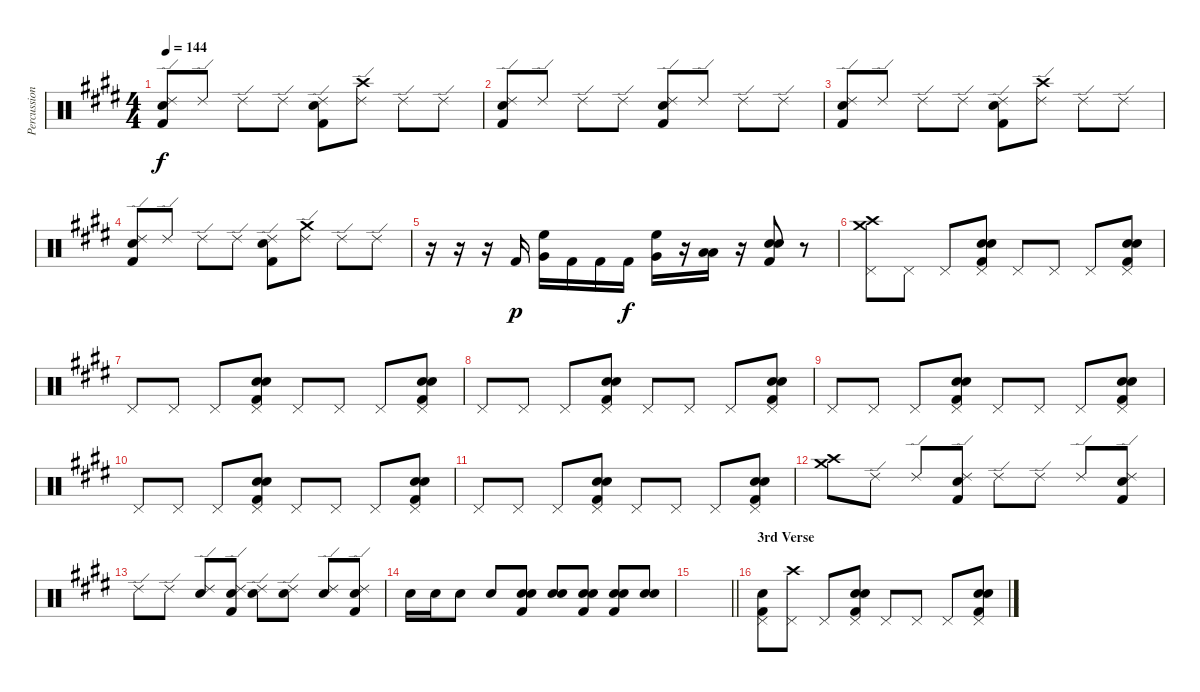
\track ("Percussion" "Percussion") {instrument percussion}
\staff {score}
\articulation defaults
\ts (4 4)
\tempo 144
\clef neutral
\ks c#minor
("Ride (edge) 2" "Snare (hit) 2" "Kick (hit) 2").8{dy f} "Ride (edge) 2".8 "Ride (edge) 2".8 "Ride (edge) 2".8 ("Ride (edge) 2" "Snare (hit) 2" "Kick (hit) 2").8 ("Ride (edge) 2" "Crash high (hit)").8 "Ride (edge) 2".8 "Ride (edge) 2".8 |
\ks e
("Ride (edge) 2" "Snare (hit) 2" "Kick (hit) 2").8 "Ride (edge) 2".8 "Ride (edge) 2".8 "Ride (edge) 2".8 ("Ride (edge) 2" "Snare (hit) 2" "Kick (hit) 2").8 "Ride (edge) 2".8 "Ride (edge) 2".8 "Ride (edge) 2".8 |
\ks c#minor
("Ride (edge) 2" "Snare (hit) 2" "Kick (hit) 2").8 "Ride (edge) 2".8 "Ride (edge) 2".8 "Ride (edge) 2".8 ("Ride (edge) 2" "Snare (hit) 2" "Kick (hit) 2").8 ("Ride (edge) 2" "Crash high (hit)").8 "Ride (edge) 2".8 "Ride (edge) 2".8 |
("Ride (edge) 2" "Snare (hit) 2" "Kick (hit) 2").8 "Ride (edge) 2".8 "Ride (edge) 2".8 "Ride (edge) 2".8 ("Ride (edge) 2" "Snare (hit) 2" "Kick (hit) 2").8 ("Ride (edge) 2" "Crash medium (hit)").8 "Ride (edge) 2".8 "Ride (edge) 2".8 |
r.16 r.16 r.16 "Kick (hit) 2".16{dy p} ("Very Low Tom (hit)" "High Floor Tom (hit)").16 "Kick (hit) 2".16 "Kick (hit) 2".16 "Kick (hit) 2".16{dy f} ("Very Low Tom (hit)" "High Floor Tom (hit)").16 r.16 ("Low Floor Tom (hit)" "Low Tom (hit)").16 r.16 ("Snare (hit) 2" "Snare (hit) 2" "Kick (hit) 2").8 r.8 |
\ks e
("Pedal Hi-Hat (hit)" "Crash high (hit)" "Crash medium (hit)").8 "Pedal Hi-Hat (hit)".8 "Pedal Hi-Hat (hit)".8 ("Pedal Hi-Hat (hit)" "Snare (hit) 2" "Snare (hit) 2" "Kick (hit) 2").8 "Pedal Hi-Hat (hit)".8 "Pedal Hi-Hat (hit)".8 "Pedal Hi-Hat (hit)".8 ("Pedal Hi-Hat (hit)" "Snare (hit) 2" "Snare (hit) 2" "Kick (hit) 2").8 |
\ks c#minor "Pedal Hi-Hat (hit)".8 "Pedal Hi-Hat (hit)".8 "Pedal Hi-Hat (hit)".8
("Pedal Hi-Hat (hit)" "Snare (hit) 2" "Snare (hit) 2" "Kick (hit) 2").8 "Pedal Hi-Hat (hit)".8 "Pedal Hi-Hat (hit)".8 "Pedal Hi-Hat (hit)".8 ("Pedal Hi-Hat (hit)" "Snare (hit) 2" "Snare (hit) 2" "Kick (hit) 2").8 |
"Pedal Hi-Hat (hit)".8 "Pedal Hi-Hat (hit)".8 "Pedal Hi-Hat (hit)".8 ("Pedal Hi-Hat (hit)" "Snare (hit) 2" "Snare (hit) 2" "Kick (hit) 2").8 "Pedal Hi-Hat (hit)".8 "Pedal Hi-Hat (hit)".8 "Pedal Hi-Hat (hit)".8 ("Pedal Hi-Hat (hit)" "Snare (hit) 2" "Snare (hit) 2" "Kick (hit) 2").8 |
\ks e "Pedal Hi-Hat (hit)".8 "Pedal Hi-Hat (hit)".8 "Pedal Hi-Hat (hit)".8
("Pedal Hi-Hat (hit)" "Snare (hit) 2" "Snare (hit) 2" "Kick (hit) 2").8 "Pedal Hi-Hat (hit)".8 "Pedal Hi-Hat (hit)".8 "Pedal Hi-Hat (hit)".8 ("Pedal Hi-Hat (hit)" "Snare (hit) 2" "Snare (hit) 2" "Kick (hit) 2").8 |
\ks c#minor "Pedal Hi-Hat (hit)".8 "Pedal Hi-Hat (hit)".8 "Pedal Hi-Hat (hit)".8
("Pedal Hi-Hat (hit)" "Snare (hit) 2" "Snare (hit) 2" "Kick (hit) 2").8 "Pedal Hi-Hat (hit)".8 "Pedal Hi-Hat (hit)".8 "Pedal Hi-Hat (hit)".8 ("Pedal Hi-Hat (hit)" "Snare (hit) 2" "Snare (hit) 2" "Kick (hit) 2").8 |
"Pedal Hi-Hat (hit)".8 "Pedal Hi-Hat (hit)".8 "Pedal Hi-Hat (hit)".8 ("Pedal Hi-Hat (hit)" "Snare (hit) 2" "Snare (hit) 2" "Kick (hit) 2").8 "Pedal Hi-Hat (hit)".8 "Pedal Hi-Hat (hit)".8 "Pedal Hi-Hat (hit)".8 ("Pedal Hi-Hat (hit)" "Snare (hit) 2" "Snare (hit) 2" "Kick (hit) 2").8 |
\ks e
("Crash high (hit)" "Crash medium (hit)").8 "Ride (edge) 2".8 "Ride (edge) 2".8 ("Ride (edge) 2" "Snare (hit) 2" "Kick (hit) 2").8 "Ride (edge) 2".8 "Ride (edge) 2".8 "Ride (edge) 2".8 ("Ride (edge) 2" "Snare (hit) 2" "Kick (hit) 2").8 |
\ks c#minor "Ride (edge) 2".8 "Ride (edge) 2".8
("Ride (edge) 2" "Snare (hit) 2").8 ("Ride (edge) 2" "Snare (hit) 2" "Kick (hit) 2").8 ("Ride (edge) 2" "Snare (hit) 2").8 ("Ride (edge) 2" "Snare (hit) 2").8 ("Ride (edge) 2" "Snare (hit) 2").8 ("Ride (edge) 2" "Snare (hit) 2" "Kick (hit) 2").8 |
"Snare (hit) 2".16 "Snare (hit) 2".16 "Snare (hit) 2".8 "Snare (hit) 2".8 ("Snare (hit) 2" "Snare (hit) 2" "Kick (hit) 2").8 ("Snare (hit) 2" "Snare (hit) 2").8 ("Snare (hit) 2" "Snare (hit) 2" "Kick (hit) 2").8 ("Snare (hit) 2" "Snare (hit) 2" "Kick (hit) 2").8 ("Snare (hit) 2" "Snare (hit) 2").8 |
\barLineRight lightlight
\ks e
|
\section ("" "3rd Verse")
\ks c#minor
("Pedal Hi-Hat (hit)" "Snare (hit) 2" "Kick (hit) 2").8 ("Pedal Hi-Hat (hit)" "Crash high (hit)").8 "Pedal Hi-Hat (hit)".8 ("Pedal Hi-Hat (hit)" "Snare (hit) 2" "Snare (hit) 2" "Kick (hit) 2").8 "Pedal Hi-Hat (hit)".8 "Pedal Hi-Hat (hit)".8 "Pedal Hi-Hat (hit)".8 ("Pedal Hi-Hat (hit)" "Snare (hit) 2" "Snare (hit) 2" "Kick (hit) 2").8
